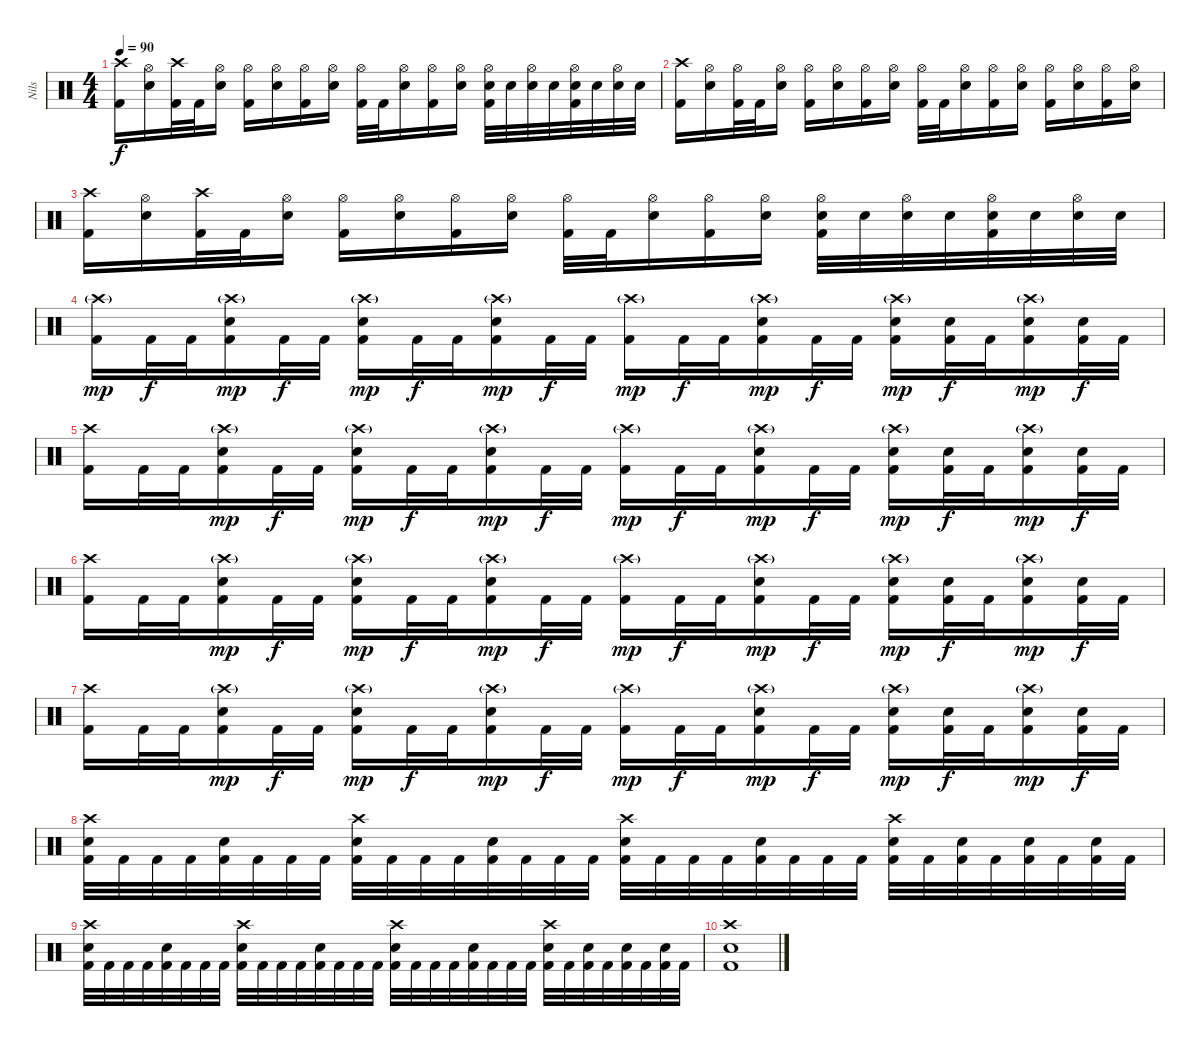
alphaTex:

\track ("Nils" "Nils") {instrument percussion}
\staff {score}
\articulation defaults
\ts (4 4)
\tempo 90
\clef neutral
\ks c
("Crash high (hit)" "Kick (hit) 2").16{dy f} ("Hi-Hat (open)" "Snare (hit) 2").16 ("Crash high (hit)" "Kick (hit) 2").32 "Kick (hit) 2".32 ("Hi-Hat (open)" "Snare (hit) 2").16 ("Hi-Hat (open)" "Kick (hit) 2").16 ("Hi-Hat (open)" "Snare (hit) 2").16 ("Hi-Hat (open)" "Kick (hit) 2").16 ("Hi-Hat (open)" "Snare (hit) 2").16 ("Hi-Hat (open)" "Kick (hit) 2").32 "Kick (hit) 2".32 ("Hi-Hat (open)" "Snare (hit) 2").16 ("Hi-Hat (open)" "Kick (hit) 2").16 ("Hi-Hat (open)" "Snare (hit) 2").16 ("Hi-Hat (open)" "Snare (hit) 2" "Kick (hit) 2").32 "Snare (hit) 2".32 ("Hi-Hat (open)" "Snare (hit) 2").32 "Snare (hit) 2".32 ("Hi-Hat (open)" "Snare (hit) 2" "Kick (hit) 2").32 "Snare (hit) 2".32 ("Hi-Hat (open)" "Snare (hit) 2").32 "Snare (hit) 2".32 |
("Crash high (hit)" "Kick (hit) 2").16 ("Hi-Hat (open)" "Snare (hit) 2").16 ("Hi-Hat (open)" "Kick (hit) 2").32 "Kick (hit) 2".32 ("Hi-Hat (open)" "Snare (hit) 2").16 ("Hi-Hat (open)" "Kick (hit) 2").16 ("Hi-Hat (open)" "Snare (hit) 2").16 ("Hi-Hat (open)" "Kick (hit) 2").16 ("Hi-Hat (open)" "Snare (hit) 2").16 ("Hi-Hat (open)" "Kick (hit) 2").32 "Kick (hit) 2".32 ("Hi-Hat (open)" "Snare (hit) 2").16 ("Hi-Hat (open)" "Kick (hit) 2").16 ("Hi-Hat (open)" "Snare (hit) 2").16 ("Hi-Hat (open)" "Kick (hit) 2").16 ("Hi-Hat (open)" "Snare (hit) 2").16 ("Hi-Hat (open)" "Kick (hit) 2").16 ("Hi-Hat (open)" "Snare (hit) 2").16 |
("Crash high (hit)" "Kick (hit) 2").16 ("Hi-Hat (open)" "Snare (hit) 2").16 ("Crash high (hit)" "Kick (hit) 2").32 "Kick (hit) 2".32 ("Hi-Hat (open)" "Snare (hit) 2").16 ("Hi-Hat (open)" "Kick (hit) 2").16 ("Hi-Hat (open)" "Snare (hit) 2").16 ("Hi-Hat (open)" "Kick (hit) 2").16 ("Hi-Hat (open)" "Snare (hit) 2").16 ("Hi-Hat (open)" "Kick (hit) 2").32 "Kick (hit) 2".32 ("Hi-Hat (open)" "Snare (hit) 2").16 ("Hi-Hat (open)" "Kick (hit) 2").16 ("Hi-Hat (open)" "Snare (hit) 2").16 ("Hi-Hat (open)" "Snare (hit) 2" "Kick (hit) 2").32 "Snare (hit) 2".32 ("Hi-Hat (open)" "Snare (hit) 2").32 "Snare (hit) 2".32 ("Hi-Hat (open)" "Snare (hit) 2" "Kick (hit) 2").32 "Snare (hit) 2".32 ("Hi-Hat (open)" "Snare (hit) 2").32 "Snare (hit) 2".32 |
("Crash high (hit)"{g} "Kick (hit) 2").16{dy mp} "Kick (hit) 2".32{dy f} "Kick (hit) 2".32 ("Crash high (hit)"{g} "Snare (hit) 2" "Kick (hit) 2").16{dy mp} "Kick (hit) 2".32{dy f} "Kick (hit) 2".32 ("Crash high (hit)"{g} "Snare (hit) 2" "Kick (hit) 2").16{dy mp} "Kick (hit) 2".32{dy f} "Kick (hit) 2".32 ("Crash high (hit)"{g} "Snare (hit) 2" "Kick (hit) 2").16{dy mp} "Kick (hit) 2".32{dy f} "Kick (hit) 2".32 ("Crash high (hit)"{g} "Kick (hit) 2").16{dy mp} "Kick (hit) 2".32{dy f} "Kick (hit) 2".32 ("Crash high (hit)"{g} "Snare (hit) 2" "Kick (hit) 2").16{dy mp} "Kick (hit) 2".32{dy f} "Kick (hit) 2".32 ("Crash high (hit)"{g} "Snare (hit) 2" "Kick (hit) 2").16{dy mp} ("Snare (hit) 2" "Kick (hit) 2").32{dy f} "Kick (hit) 2".32 ("Crash high (hit)"{g} "Snare (hit) 2" "Kick (hit) 2").16{dy mp} ("Snare (hit) 2" "Kick (hit) 2").32{dy f} "Kick (hit) 2".32 |
("Crash high (hit)" "Kick (hit) 2").16 "Kick (hit) 2".32 "Kick (hit) 2".32 ("Crash high (hit)"{g} "Snare (hit) 2" "Kick (hit) 2").16{dy mp} "Kick (hit) 2".32{dy f} "Kick (hit) 2".32 ("Crash high (hit)"{g} "Snare (hit) 2" "Kick (hit) 2").16{dy mp} "Kick (hit) 2".32{dy f} "Kick (hit) 2".32 ("Crash high (hit)"{g} "Snare (hit) 2" "Kick (hit) 2").16{dy mp} "Kick (hit) 2".32{dy f} "Kick (hit) 2".32 ("Crash high (hit)"{g} "Kick (hit) 2").16{dy mp} "Kick (hit) 2".32{dy f} "Kick (hit) 2".32 ("Crash high (hit)"{g} "Snare (hit) 2" "Kick (hit) 2").16{dy mp} "Kick (hit) 2".32{dy f} "Kick (hit) 2".32 ("Crash high (hit)"{g} "Snare (hit) 2" "Kick (hit) 2").16{dy mp} ("Snare (hit) 2" "Kick (hit) 2").32{dy f} "Kick (hit) 2".32 ("Crash high (hit)"{g} "Snare (hit) 2" "Kick (hit) 2").16{dy mp} ("Snare (hit) 2" "Kick (hit) 2").32{dy f} "Kick (hit) 2".32 |
("Crash high (hit)" "Kick (hit) 2").16 "Kick (hit) 2".32 "Kick (hit) 2".32 ("Crash high (hit)"{g} "Snare (hit) 2" "Kick (hit) 2").16{dy mp} "Kick (hit) 2".32{dy f} "Kick (hit) 2".32 ("Crash high (hit)"{g} "Snare (hit) 2" "Kick (hit) 2").16{dy mp} "Kick (hit) 2".32{dy f} "Kick (hit) 2".32 ("Crash high (hit)"{g} "Snare (hit) 2" "Kick (hit) 2").16{dy mp} "Kick (hit) 2".32{dy f} "Kick (hit) 2".32 ("Crash high (hit)"{g} "Kick (hit) 2").16{dy mp} "Kick (hit) 2".32{dy f} "Kick (hit) 2".32 ("Crash high (hit)"{g} "Snare (hit) 2" "Kick (hit) 2").16{dy mp} "Kick (hit) 2".32{dy f} "Kick (hit) 2".32 ("Crash high (hit)"{g} "Snare (hit) 2" "Kick (hit) 2").16{dy mp} ("Snare (hit) 2" "Kick (hit) 2").32{dy f} "Kick (hit) 2".32 ("Crash high (hit)"{g} "Snare (hit) 2" "Kick (hit) 2").16{dy mp} ("Snare (hit) 2" "Kick (hit) 2").32{dy f} "Kick (hit) 2".32 |
("Crash high (hit)" "Kick (hit) 2").16 "Kick (hit) 2".32 "Kick (hit) 2".32 ("Crash high (hit)"{g} "Snare (hit) 2" "Kick (hit) 2").16{dy mp} "Kick (hit) 2".32{dy f} "Kick (hit) 2".32 ("Crash high (hit)"{g} "Snare (hit) 2" "Kick (hit) 2").16{dy mp} "Kick (hit) 2".32{dy f} "Kick (hit) 2".32 ("Crash high (hit)"{g} "Snare (hit) 2" "Kick (hit) 2").16{dy mp} "Kick (hit) 2".32{dy f} "Kick (hit) 2".32 ("Crash high (hit)"{g} "Kick (hit) 2").16{dy mp} "Kick (hit) 2".32{dy f} "Kick (hit) 2".32 ("Crash high (hit)"{g} "Snare (hit) 2" "Kick (hit) 2").16{dy mp} "Kick (hit) 2".32{dy f} "Kick (hit) 2".32 ("Crash high (hit)"{g} "Snare (hit) 2" "Kick (hit) 2").16{dy mp} ("Snare (hit) 2" "Kick (hit) 2").32{dy f} "Kick (hit) 2".32 ("Crash high (hit)"{g} "Snare (hit) 2" "Kick (hit) 2").16{dy mp} ("Snare (hit) 2" "Kick (hit) 2").32{dy f} "Kick (hit) 2".32 |
("Crash high (hit)" "Snare (hit) 2" "Kick (hit) 2").32 "Kick (hit) 2".32 "Kick (hit) 2".32 "Kick (hit) 2".32 ("Snare (hit) 2" "Kick (hit) 2").32 "Kick (hit) 2".32 "Kick (hit) 2".32 "Kick (hit) 2".32 ("Crash high (hit)" "Snare (hit) 2" "Kick (hit) 2").32 "Kick (hit) 2".32 "Kick (hit) 2".32 "Kick (hit) 2".32 ("Snare (hit) 2" "Kick (hit) 2").32 "Kick (hit) 2".32 "Kick (hit) 2".32 "Kick (hit) 2".32 ("Crash high (hit)" "Snare (hit) 2" "Kick (hit) 2").32 "Kick (hit) 2".32 "Kick (hit) 2".32 "Kick (hit) 2".32 ("Snare (hit) 2" "Kick (hit) 2").32 "Kick (hit) 2".32 "Kick (hit) 2".32 "Kick (hit) 2".32 ("Crash high (hit)" "Snare (hit) 2" "Kick (hit) 2").32 "Kick (hit) 2".32 ("Snare (hit) 2" "Kick (hit) 2").32 "Kick (hit) 2".32 ("Snare (hit) 2" "Kick (hit) 2").32 "Kick (hit) 2".32 ("Snare (hit) 2" "Kick (hit) 2").32 "Kick (hit) 2".32 |
("Crash high (hit)" "Snare (hit) 2" "Kick (hit) 2").32 "Kick (hit) 2".32 "Kick (hit) 2".32 "Kick (hit) 2".32 ("Snare (hit) 2" "Kick (hit) 2").32 "Kick (hit) 2".32 "Kick (hit) 2".32 "Kick (hit) 2".32 ("Crash high (hit)" "Snare (hit) 2" "Kick (hit) 2").32 "Kick (hit) 2".32 "Kick (hit) 2".32 "Kick (hit) 2".32 ("Snare (hit) 2" "Kick (hit) 2").32 "Kick (hit) 2".32 "Kick (hit) 2".32 "Kick (hit) 2".32 ("Crash high (hit)" "Snare (hit) 2" "Kick (hit) 2").32 "Kick (hit) 2".32 "Kick (hit) 2".32 "Kick (hit) 2".32 ("Snare (hit) 2" "Kick (hit) 2").32 "Kick (hit) 2".32 "Kick (hit) 2".32 "Kick (hit) 2".32 ("Crash high (hit)" "Snare (hit) 2" "Kick (hit) 2").32 "Kick (hit) 2".32 ("Snare (hit) 2" "Kick (hit) 2").32 "Kick (hit) 2".32 ("Snare (hit) 2" "Kick (hit) 2").32 "Kick (hit) 2".32 ("Snare (hit) 2" "Kick (hit) 2").32 "Kick (hit) 2".32 |
("Crash high (hit)" "Snare (hit) 2" "Kick (hit) 2").1
